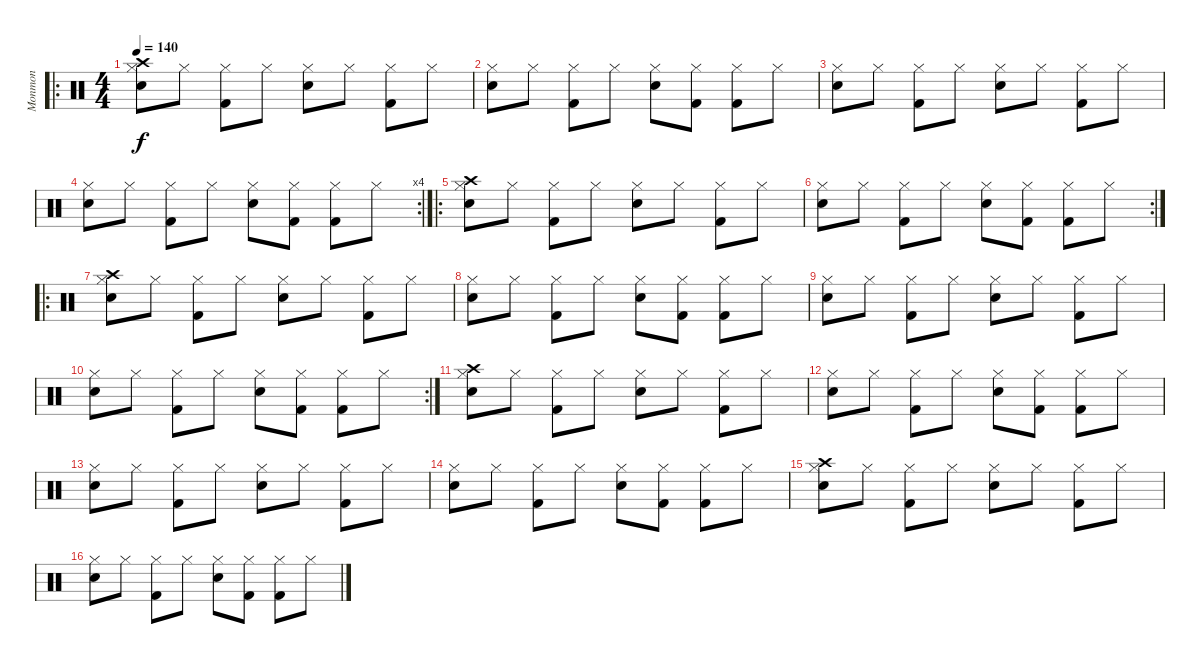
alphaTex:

\track ("Monmon" "Monmon") {instrument percussion}
\staff {score}
\articulation defaults
\ro
\ts (4 4)
\tempo 140
\clef neutral
\ks c
("Crash high (hit)" "Hi-Hat (closed)" "Snare (hit) 2").8{dy f} "Hi-Hat (closed)".8 ("Hi-Hat (closed)" "Kick (hit) 2").8 "Hi-Hat (closed)".8 ("Hi-Hat (closed)" "Snare (hit) 2").8 "Hi-Hat (closed)".8 ("Hi-Hat (closed)" "Kick (hit) 2").8 "Hi-Hat (closed)".8 |
("Hi-Hat (closed)" "Snare (hit) 2").8 "Hi-Hat (closed)".8 ("Hi-Hat (closed)" "Kick (hit) 2").8 "Hi-Hat (closed)".8 ("Hi-Hat (closed)" "Snare (hit) 2").8 ("Hi-Hat (closed)" "Kick (hit) 2").8 ("Hi-Hat (closed)" "Kick (hit) 2").8 "Hi-Hat (closed)".8 |
("Hi-Hat (closed)" "Snare (hit) 2").8 "Hi-Hat (closed)".8 ("Hi-Hat (closed)" "Kick (hit) 2").8 "Hi-Hat (closed)".8 ("Hi-Hat (closed)" "Snare (hit) 2").8 "Hi-Hat (closed)".8 ("Hi-Hat (closed)" "Kick (hit) 2").8 "Hi-Hat (closed)".8 |
\rc 4
("Hi-Hat (closed)" "Snare (hit) 2").8 "Hi-Hat (closed)".8 ("Hi-Hat (closed)" "Kick (hit) 2").8 "Hi-Hat (closed)".8 ("Hi-Hat (closed)" "Snare (hit) 2").8 ("Hi-Hat (closed)" "Kick (hit) 2").8 ("Hi-Hat (closed)" "Kick (hit) 2").8 "Hi-Hat (closed)".8 |
\ro
("Crash high (hit)" "Hi-Hat (closed)" "Snare (hit) 2").8 "Hi-Hat (closed)".8 ("Hi-Hat (closed)" "Kick (hit) 2").8 "Hi-Hat (closed)".8 ("Hi-Hat (closed)" "Snare (hit) 2").8 "Hi-Hat (closed)".8 ("Hi-Hat (closed)" "Kick (hit) 2").8 "Hi-Hat (closed)".8 |
\rc 2
("Hi-Hat (closed)" "Snare (hit) 2").8 "Hi-Hat (closed)".8 ("Hi-Hat (closed)" "Kick (hit) 2").8 "Hi-Hat (closed)".8 ("Hi-Hat (closed)" "Snare (hit) 2").8 ("Hi-Hat (closed)" "Kick (hit) 2").8 ("Hi-Hat (closed)" "Kick (hit) 2").8 "Hi-Hat (closed)".8 |
\ro
("Crash high (hit)" "Hi-Hat (closed)" "Snare (hit) 2").8 "Hi-Hat (closed)".8 ("Hi-Hat (closed)" "Kick (hit) 2").8 "Hi-Hat (closed)".8 ("Hi-Hat (closed)" "Snare (hit) 2").8 "Hi-Hat (closed)".8 ("Hi-Hat (closed)" "Kick (hit) 2").8 "Hi-Hat (closed)".8 |
("Hi-Hat (closed)" "Snare (hit) 2").8 "Hi-Hat (closed)".8 ("Hi-Hat (closed)" "Kick (hit) 2").8 "Hi-Hat (closed)".8 ("Hi-Hat (closed)" "Snare (hit) 2").8 ("Hi-Hat (closed)" "Kick (hit) 2").8 ("Hi-Hat (closed)" "Kick (hit) 2").8 "Hi-Hat (closed)".8 |
("Hi-Hat (closed)" "Snare (hit) 2").8 "Hi-Hat (closed)".8 ("Hi-Hat (closed)" "Kick (hit) 2").8 "Hi-Hat (closed)".8 ("Hi-Hat (closed)" "Snare (hit) 2").8 "Hi-Hat (closed)".8 ("Hi-Hat (closed)" "Kick (hit) 2").8 "Hi-Hat (closed)".8 |
\rc 2
("Hi-Hat (closed)" "Snare (hit) 2").8 "Hi-Hat (closed)".8 ("Hi-Hat (closed)" "Kick (hit) 2").8 "Hi-Hat (closed)".8 ("Hi-Hat (closed)" "Snare (hit) 2").8 ("Hi-Hat (closed)" "Kick (hit) 2").8 ("Hi-Hat (closed)" "Kick (hit) 2").8 "Hi-Hat (closed)".8 |
("Crash high (hit)" "Hi-Hat (closed)" "Snare (hit) 2").8 "Hi-Hat (closed)".8 ("Hi-Hat (closed)" "Kick (hit) 2").8 "Hi-Hat (closed)".8 ("Hi-Hat (closed)" "Snare (hit) 2").8 "Hi-Hat (closed)".8 ("Hi-Hat (closed)" "Kick (hit) 2").8 "Hi-Hat (closed)".8 |
("Hi-Hat (closed)" "Snare (hit) 2").8 "Hi-Hat (closed)".8 ("Hi-Hat (closed)" "Kick (hit) 2").8 "Hi-Hat (closed)".8 ("Hi-Hat (closed)" "Snare (hit) 2").8 ("Hi-Hat (closed)" "Kick (hit) 2").8 ("Hi-Hat (closed)" "Kick (hit) 2").8 "Hi-Hat (closed)".8 |
("Hi-Hat (closed)" "Snare (hit) 2").8 "Hi-Hat (closed)".8 ("Hi-Hat (closed)" "Kick (hit) 2").8 "Hi-Hat (closed)".8 ("Hi-Hat (closed)" "Snare (hit) 2").8 "Hi-Hat (closed)".8 ("Hi-Hat (closed)" "Kick (hit) 2").8 "Hi-Hat (closed)".8 |
("Hi-Hat (closed)" "Snare (hit) 2").8 "Hi-Hat (closed)".8 ("Hi-Hat (closed)" "Kick (hit) 2").8 "Hi-Hat (closed)".8 ("Hi-Hat (closed)" "Snare (hit) 2").8 ("Hi-Hat (closed)" "Kick (hit) 2").8 ("Hi-Hat (closed)" "Kick (hit) 2").8 "Hi-Hat (closed)".8 |
("Crash high (hit)" "Hi-Hat (closed)" "Snare (hit) 2").8 "Hi-Hat (closed)".8 ("Hi-Hat (closed)" "Kick (hit) 2").8 "Hi-Hat (closed)".8 ("Hi-Hat (closed)" "Snare (hit) 2").8 "Hi-Hat (closed)".8 ("Hi-Hat (closed)" "Kick (hit) 2").8 "Hi-Hat (closed)".8 |
("Hi-Hat (closed)" "Snare (hit) 2").8 "Hi-Hat (closed)".8 ("Hi-Hat (closed)" "Kick (hit) 2").8 "Hi-Hat (closed)".8 ("Hi-Hat (closed)" "Snare (hit) 2").8 ("Hi-Hat (closed)" "Kick (hit) 2").8 ("Hi-Hat (closed)" "Kick (hit) 2").8 "Hi-Hat (closed)".8
